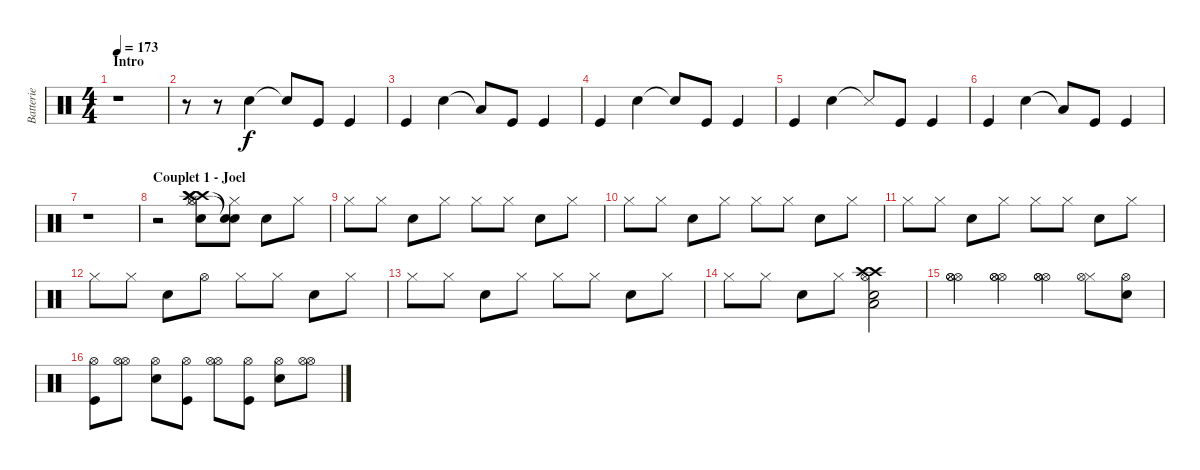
\track ("Batterie" "Batterie") {instrument percussion}
\staff {score}
\articulation defaults
\ts (4 4)
\section ("" "Intro")
\tempo 173
\clef neutral
\ks c
r.1{dy f} |
r.8 r.8 "Electric Snare (hit)".4 "Snare (hit)"{t}.8 "Kick (hit)".8 "Kick (hit)".4 |
"Kick (hit)".4{volume 7} "Electric Snare (hit)".4{volume 16} "Low Floor Tom (hit)"{t}.8 "Kick (hit)".8 "Kick (hit)".4 |
"Kick (hit)".4 "Electric Snare (hit)".4 "Electric Snare (hit)"{t}.8 "Kick (hit)".8 "Kick (hit)".4 |
"Kick (hit)".4 "Electric Snare (hit)".4 "Snare (side stick) 3"{t}.8 "Kick (hit)".8 "Kick (hit)".4 |
"Kick (hit)".4 "Electric Snare (hit)".4 "Low Floor Tom (hit)"{t}.8 "Kick (hit)".8 "Kick (hit)".4 |
r.1 |
\section ("" "Couplet 1 - Joel")
r.2 ("Electric Snare (hit)" "Crash high (hit)" "Hi-Hat (open)" "Crash high (hit)" "Crash high (hit)" "Hi-Hat (closed)").8 ("Hi-Hat (closed)" "Snare (hit)"{t} "Snare (hit)"{t}).8 "Electric Snare (hit)".8 "Hi-Hat (closed)".8 |
"Hi-Hat (closed)".8 "Hi-Hat (closed)".8 "Electric Snare (hit)".8 "Hi-Hat (closed)".8 "Hi-Hat (closed)".8 "Hi-Hat (closed)".8 "Electric Snare (hit)".8 "Hi-Hat (closed)".8 |
"Hi-Hat (closed)".8 "Hi-Hat (closed)".8 "Electric Snare (hit)".8 "Hi-Hat (closed)".8 "Hi-Hat (closed)".8 "Hi-Hat (closed)".8 "Electric Snare (hit)".8 "Hi-Hat (closed)".8 |
"Hi-Hat (closed)".8 "Hi-Hat (closed)".8 "Electric Snare (hit)".8 "Hi-Hat (closed)".8 "Hi-Hat (closed)".8 "Hi-Hat (closed)".8 "Electric Snare (hit)".8 "Hi-Hat (closed)".8 |
"Hi-Hat (closed)".8 "Hi-Hat (closed)".8 "Electric Snare (hit)".8 "Hi-Hat (open)".8 "Hi-Hat (closed)".8 "Hi-Hat (closed)".8 "Electric Snare (hit)".8 "Hi-Hat (closed)".8 |
"Hi-Hat (closed)".8 "Hi-Hat (closed)".8 "Electric Snare (hit)".8 "Hi-Hat (closed)".8 "Hi-Hat (closed)".8 "Hi-Hat (closed)".8 "Electric Snare (hit)".8 "Hi-Hat (closed)".8 |
"Hi-Hat (closed)".8 "Hi-Hat (closed)".8 "Electric Snare (hit)".8 "Hi-Hat (closed)".8 ("Crash high (hit)" "Crash high (hit)" "Electric Snare (hit)" "Low Tom (hit)" "Hi-Hat (open)").2 |
("Hi-Hat (open)" "Hi-Hat (open)" "Hi-Hat (open)").4 ("Hi-Hat (open)" "Hi-Hat (open)" "Hi-Hat (open)").4 ("Hi-Hat (open)" "Hi-Hat (open)" "Hi-Hat (open)").4 ("Hi-Hat (closed)" "Hi-Hat (open)").8 ("Electric Snare (hit)" "Hi-Hat (open)").8 |
("Kick (hit)" "Hi-Hat (open)").8 ("Hi-Hat (open)" "Hi-Hat (open)").8 ("Electric Snare (hit)" "Hi-Hat (open)").8 ("Kick (hit)" "Hi-Hat (open)").8 ("Hi-Hat (open)" "Hi-Hat (open)").8 ("Kick (hit)" "Hi-Hat (open)").8 ("Electric Snare (hit)" "Hi-Hat (open)").8 ("Hi-Hat (open)" "Hi-Hat (open)").8
